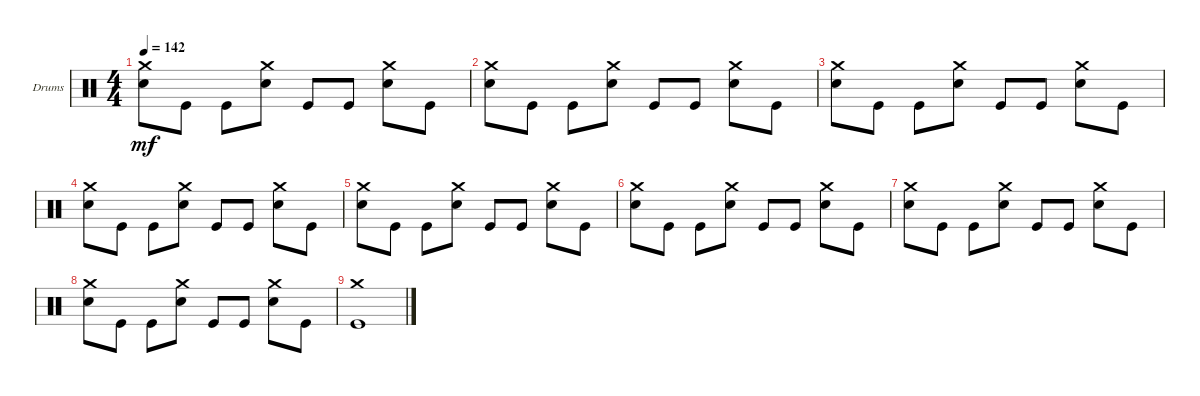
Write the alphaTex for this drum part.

\defaultSystemsLayout 4
\bracketExtendMode groupsimilarinstruments
\firstSystemTrackNameOrientation horizontal
\otherSystemsTrackNameOrientation horizontal
\track ("Drumkit" "Drums") {instrument percussion}
\staff {score}
\articulation defaults
\ts (4 4)
\tempo 142
\clef neutral
\scale
0.474178
\ks c
("Snare (hit) 2" "Crash medium (hit)").8{dy mf} "Kick (hit)".8 "Kick (hit)".8 ("Snare (hit) 2" "Crash medium (hit)").8 "Kick (hit)".8 "Kick (hit)".8 ("Snare (hit) 2" "Crash medium (hit)").8 "Kick (hit)".8 |
\scale
0.262911 ("Snare (hit) 2" "Crash medium (hit)").8 "Kick (hit)".8 "Kick (hit)".8 ("Snare (hit) 2" "Crash medium (hit)").8 "Kick (hit)".8 "Kick (hit)".8 ("Snare (hit) 2" "Crash medium (hit)").8 "Kick (hit)".8 |
\scale
0.262911 ("Snare (hit) 2" "Crash medium (hit)").8 "Kick (hit)".8 "Kick (hit)".8 ("Snare (hit) 2" "Crash medium (hit)").8 "Kick (hit)".8 "Kick (hit)".8 ("Snare (hit) 2" "Crash medium (hit)").8 "Kick (hit)".8 |
\scale
0.333333 ("Snare (hit) 2" "Crash medium (hit)").8 "Kick (hit)".8 "Kick (hit)".8 ("Snare (hit) 2" "Crash medium (hit)").8 "Kick (hit)".8 "Kick (hit)".8 ("Snare (hit) 2" "Crash medium (hit)").8 "Kick (hit)".8 |
\scale
0.333333 ("Snare (hit) 2" "Crash medium (hit)").8 "Kick (hit)".8 "Kick (hit)".8 ("Snare (hit) 2" "Crash medium (hit)").8 "Kick (hit)".8 "Kick (hit)".8 ("Snare (hit) 2" "Crash medium (hit)").8 "Kick (hit)".8 |
\scale
0.333333 ("Snare (hit) 2" "Crash medium (hit)").8 "Kick (hit)".8 "Kick (hit)".8 ("Snare (hit) 2" "Crash medium (hit)").8 "Kick (hit)".8 "Kick (hit)".8 ("Snare (hit) 2" "Crash medium (hit)").8 "Kick (hit)".8 |
\scale
0.333333 ("Snare (hit) 2" "Crash medium (hit)").8 "Kick (hit)".8 "Kick (hit)".8 ("Snare (hit) 2" "Crash medium (hit)").8 "Kick (hit)".8 "Kick (hit)".8 ("Snare (hit) 2" "Crash medium (hit)").8 "Kick (hit)".8 |
\scale
0.333333 ("Snare (hit) 2" "Crash medium (hit)").8 "Kick (hit)".8 "Kick (hit)".8 ("Snare (hit) 2" "Crash medium (hit)").8 "Kick (hit)".8 "Kick (hit)".8 ("Snare (hit) 2" "Crash medium (hit)").8 "Kick (hit)".8 |
\scale
0.333333 ("Crash medium (hit)" "Kick (hit)").1 |
\scale
0.333333 |
\scale
0.333333 |
\scale
0.333333 |
\scale
0.333333 |
\scale
0.333333 |
\scale
0.333333 |
\scale
0.333333
